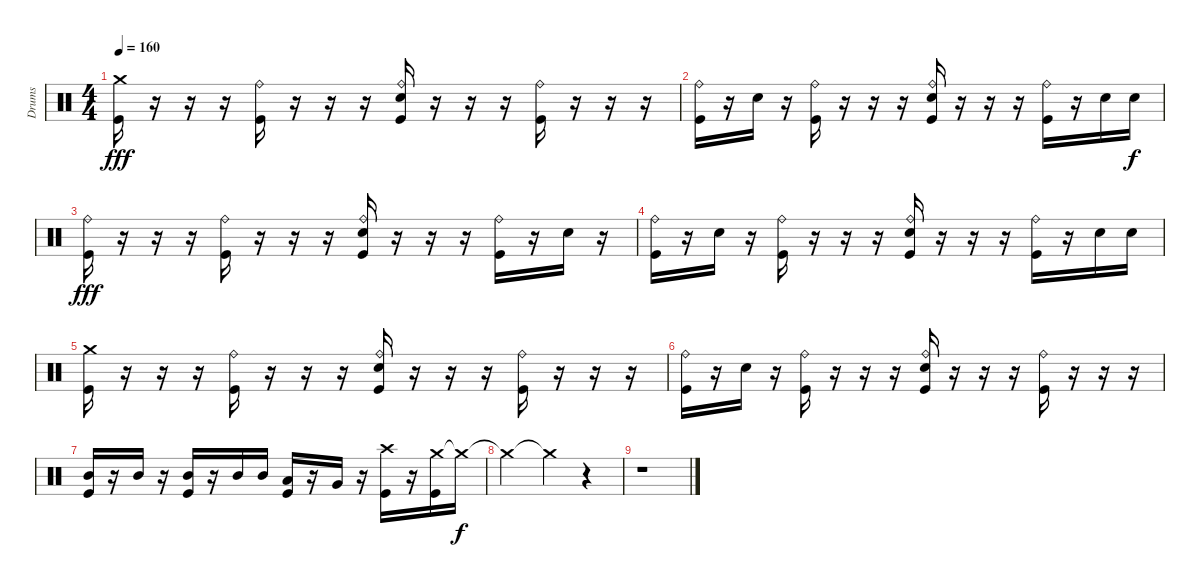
\track ("Drums" "Drums") {instrument percussion}
\staff {score}
\articulation defaults
\ts (4 4)
\tempo 160
\clef neutral
\ks c
("Crash medium (hit)" "Kick (hit)").16{dy fff} r.16 r.16 r.16 ("Ride (bell)" "Kick (hit)").16 r.16 r.16 r.16 ("Ride (bell)" "Electric Snare (hit)" "Kick (hit)").16 r.16 r.16 r.16 ("Ride (bell)" "Kick (hit)").16 r.16 r.16 r.16 |
("Ride (bell)" "Kick (hit)").16 r.16 "Electric Snare (hit)".16 r.16 ("Ride (bell)" "Kick (hit)").16 r.16 r.16 r.16 ("Ride (bell)" "Electric Snare (hit)" "Kick (hit)").16 r.16 r.16 r.16 ("Ride (bell)" "Kick (hit)").16 r.16 "Electric Snare (hit)".16 "Electric Snare (hit)".16{dy f} |
("Ride (bell)" "Kick (hit)").16{dy fff} r.16 r.16 r.16 ("Ride (bell)" "Kick (hit)").16 r.16 r.16 r.16 ("Ride (bell)" "Electric Snare (hit)" "Kick (hit)").16 r.16 r.16 r.16 ("Ride (bell)" "Kick (hit)").16 r.16 "Electric Snare (hit)".16 r.16 |
("Ride (bell)" "Kick (hit)").16 r.16 "Electric Snare (hit)".16 r.16 ("Ride (bell)" "Kick (hit)").16 r.16 r.16 r.16 ("Ride (bell)" "Electric Snare (hit)" "Kick (hit)").16 r.16 r.16 r.16 ("Ride (bell)" "Kick (hit)").16 r.16 "Electric Snare (hit)".16 "Electric Snare (hit)".16 |
("Crash medium (hit)" "Kick (hit)").16 r.16 r.16 r.16 ("Ride (bell)" "Kick (hit)").16 r.16 r.16 r.16 ("Ride (bell)" "Electric Snare (hit)" "Kick (hit)").16 r.16 r.16 r.16 ("Ride (bell)" "Kick (hit)").16 r.16 r.16 r.16 |
("Ride (bell)" "Kick (hit)").16 r.16 "Electric Snare (hit)".16 r.16 ("Ride (bell)" "Kick (hit)").16 r.16 r.16 r.16 ("Ride (bell)" "Electric Snare (hit)" "Kick (hit)").16 r.16 r.16 r.16 ("Ride (bell)" "Kick (hit)").16 r.16 r.16 r.16 |
("Mid Tom (hit)" "Kick (hit)").16 r.16 "Mid Tom (hit)".16 r.16 ("Mid Tom (hit)" "Kick (hit)").16 r.16 "Mid Tom (hit)".16 "Mid Tom (hit)".16 ("Low Tom (hit)" "Kick (hit)").16 r.16 "Very Low Tom (hit)".16 r.16 ("Crash high (hit)" "Kick (hit)").16 r.16 ("Crash medium (hit)" "Kick (hit)").16 "Crash medium (hit)"{t}.16{dy f} |
"Crash medium (hit)"{t}.2 "Crash medium (hit)"{t}.4 r.4 |
r.1
